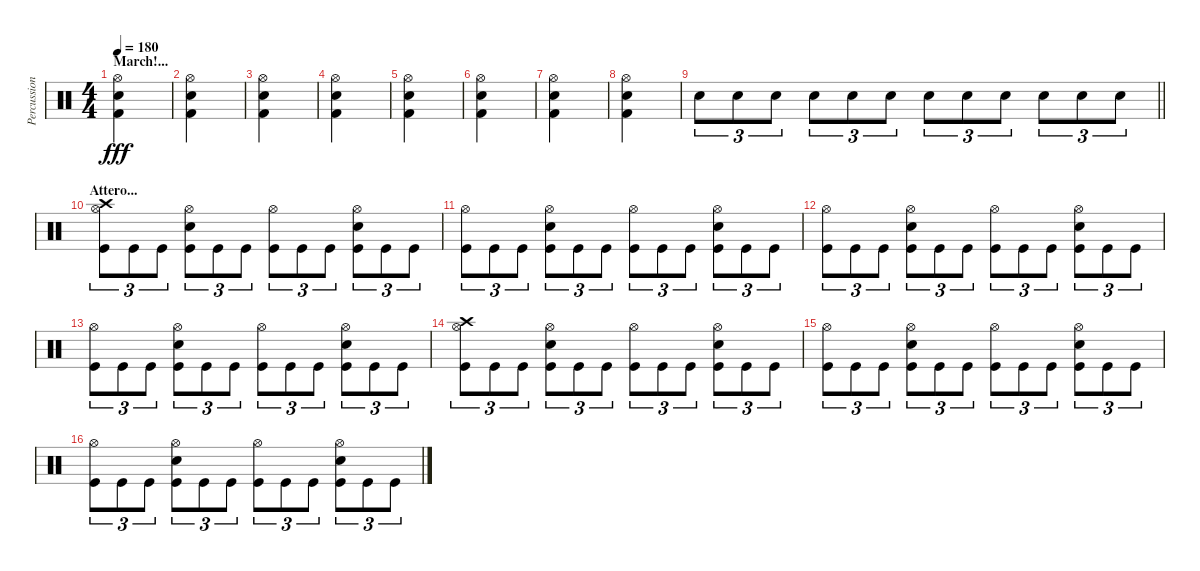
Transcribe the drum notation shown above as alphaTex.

\track ("Percussion" "Percussion") {instrument percussion}
\staff {score}
\articulation defaults
\ts (4 4)
\section ("" "March!...")
\tempo 180
\clef neutral
\ks c
("Hi-Hat (open)" "Electric Snare (hit)" "Kick (hit) 2").4{dy fff} |
("Hi-Hat (open)" "Electric Snare (hit)" "Kick (hit) 2").4 |
("Hi-Hat (open)" "Electric Snare (hit)" "Kick (hit) 2").4 |
("Hi-Hat (open)" "Electric Snare (hit)" "Kick (hit) 2").4 |
("Hi-Hat (open)" "Electric Snare (hit)" "Kick (hit) 2").4 |
("Hi-Hat (open)" "Electric Snare (hit)" "Kick (hit) 2").4 |
("Hi-Hat (open)" "Electric Snare (hit)" "Kick (hit) 2").4 |
("Hi-Hat (open)" "Electric Snare (hit)" "Kick (hit) 2").4 |
\barLineRight lightlight "Electric Snare (hit)".8{tu (3 2)} "Electric Snare (hit)".8{tu (3 2)} "Electric Snare (hit)".8{tu (3 2)} "Electric Snare (hit)".8{tu (3 2)} "Electric Snare (hit)".8{tu (3 2)} "Electric Snare (hit)".8{tu (3 2)} "Electric Snare (hit)".8{tu (3 2)} "Electric Snare (hit)".8{tu (3 2)} "Electric Snare (hit)".8{tu (3 2)} "Electric Snare (hit)".8{tu (3 2)} "Electric Snare (hit)".8{tu (3 2)} "Electric Snare (hit)".8{tu (3 2)}
|
\section ("" "Attero...")
("Crash high (hit)" "Hi-Hat (open)" "Kick (hit)").8{tu (3 2)} "Kick (hit)".8{tu (3 2)} "Kick (hit)".8{tu (3 2)} ("Hi-Hat (open)" "Electric Snare (hit)" "Kick (hit)").8{tu (3 2)} "Kick (hit)".8{tu (3 2)} "Kick (hit)".8{tu (3 2)} ("Hi-Hat (open)" "Kick (hit)").8{tu (3 2)} "Kick (hit)".8{tu (3 2)} "Kick (hit)".8{tu (3 2)} ("Hi-Hat (open)" "Electric Snare (hit)" "Kick (hit)").8{tu (3 2)} "Kick (hit)".8{tu (3 2)} "Kick (hit)".8{tu (3 2)} |
("Hi-Hat (open)" "Kick (hit)").8{tu (3 2)} "Kick (hit)".8{tu (3 2)} "Kick (hit)".8{tu (3 2)} ("Hi-Hat (open)" "Electric Snare (hit)" "Kick (hit)").8{tu (3 2)} "Kick (hit)".8{tu (3 2)} "Kick (hit)".8{tu (3 2)} ("Hi-Hat (open)" "Kick (hit)").8{tu (3 2)} "Kick (hit)".8{tu (3 2)} "Kick (hit)".8{tu (3 2)} ("Hi-Hat (open)" "Electric Snare (hit)" "Kick (hit)").8{tu (3 2)} "Kick (hit)".8{tu (3 2)} "Kick (hit)".8{tu (3 2)} |
("Hi-Hat (open)" "Kick (hit)").8{tu (3 2)} "Kick (hit)".8{tu (3 2)} "Kick (hit)".8{tu (3 2)} ("Hi-Hat (open)" "Electric Snare (hit)" "Kick (hit)").8{tu (3 2)} "Kick (hit)".8{tu (3 2)} "Kick (hit)".8{tu (3 2)} ("Hi-Hat (open)" "Kick (hit)").8{tu (3 2)} "Kick (hit)".8{tu (3 2)} "Kick (hit)".8{tu (3 2)} ("Hi-Hat (open)" "Electric Snare (hit)" "Kick (hit)").8{tu (3 2)} "Kick (hit)".8{tu (3 2)} "Kick (hit)".8{tu (3 2)} |
("Hi-Hat (open)" "Kick (hit)").8{tu (3 2)} "Kick (hit)".8{tu (3 2)} "Kick (hit)".8{tu (3 2)} ("Hi-Hat (open)" "Electric Snare (hit)" "Kick (hit)").8{tu (3 2)} "Kick (hit)".8{tu (3 2)} "Kick (hit)".8{tu (3 2)} ("Hi-Hat (open)" "Kick (hit)").8{tu (3 2)} "Kick (hit)".8{tu (3 2)} "Kick (hit)".8{tu (3 2)} ("Hi-Hat (open)" "Electric Snare (hit)" "Kick (hit)").8{tu (3 2)} "Kick (hit)".8{tu (3 2)} "Kick (hit)".8{tu (3 2)} |
("Crash high (hit)" "Hi-Hat (open)" "Kick (hit)").8{tu (3 2)} "Kick (hit)".8{tu (3 2)} "Kick (hit)".8{tu (3 2)} ("Hi-Hat (open)" "Electric Snare (hit)" "Kick (hit)").8{tu (3 2)} "Kick (hit)".8{tu (3 2)} "Kick (hit)".8{tu (3 2)} ("Hi-Hat (open)" "Kick (hit)").8{tu (3 2)} "Kick (hit)".8{tu (3 2)} "Kick (hit)".8{tu (3 2)} ("Hi-Hat (open)" "Electric Snare (hit)" "Kick (hit)").8{tu (3 2)} "Kick (hit)".8{tu (3 2)} "Kick (hit)".8{tu (3 2)} |
("Hi-Hat (open)" "Kick (hit)").8{tu (3 2)} "Kick (hit)".8{tu (3 2)} "Kick (hit)".8{tu (3 2)} ("Hi-Hat (open)" "Electric Snare (hit)" "Kick (hit)").8{tu (3 2)} "Kick (hit)".8{tu (3 2)} "Kick (hit)".8{tu (3 2)} ("Hi-Hat (open)" "Kick (hit)").8{tu (3 2)} "Kick (hit)".8{tu (3 2)} "Kick (hit)".8{tu (3 2)} ("Hi-Hat (open)" "Electric Snare (hit)" "Kick (hit)").8{tu (3 2)} "Kick (hit)".8{tu (3 2)} "Kick (hit)".8{tu (3 2)} |
("Hi-Hat (open)" "Kick (hit)").8{tu (3 2)} "Kick (hit)".8{tu (3 2)} "Kick (hit)".8{tu (3 2)} ("Hi-Hat (open)" "Electric Snare (hit)" "Kick (hit)").8{tu (3 2)} "Kick (hit)".8{tu (3 2)} "Kick (hit)".8{tu (3 2)} ("Hi-Hat (open)" "Kick (hit)").8{tu (3 2)} "Kick (hit)".8{tu (3 2)} "Kick (hit)".8{tu (3 2)} ("Hi-Hat (open)" "Electric Snare (hit)" "Kick (hit)").8{tu (3 2)} "Kick (hit)".8{tu (3 2)} "Kick (hit)".8{tu (3 2)}
